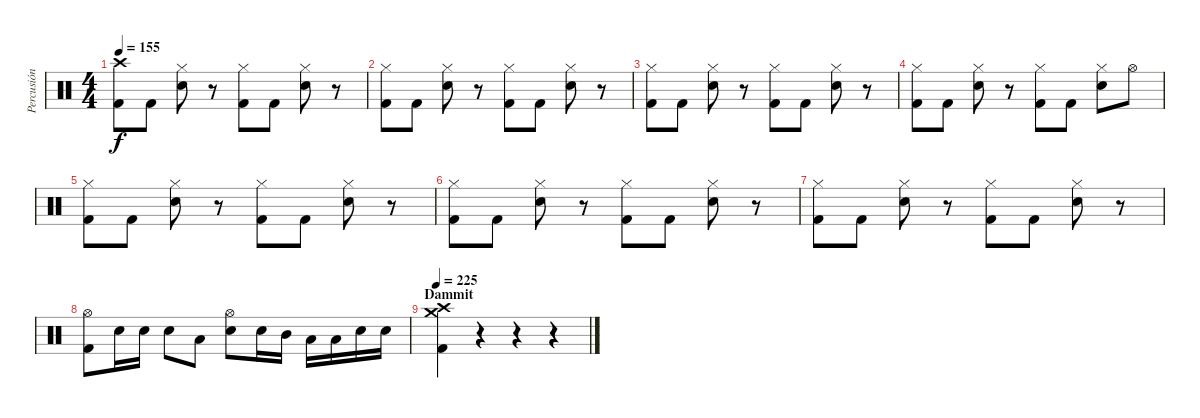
\track ("Percusión" "Percusión") {instrument percussion}
\staff {score}
\articulation defaults
\ts (4 4)
\tempo 155
\clef neutral
\ks c
("Crash high (hit)" "Kick (hit) 2").8{dy f} "Kick (hit) 2".8 ("Hi-Hat (closed)" "Electric Snare (hit)").8 r.8 ("Hi-Hat (closed)" "Kick (hit) 2").8 "Kick (hit) 2".8 ("Hi-Hat (closed)" "Electric Snare (hit)").8 r.8 |
("Hi-Hat (closed)" "Kick (hit) 2").8 "Kick (hit) 2".8 ("Hi-Hat (closed)" "Electric Snare (hit)").8 r.8 ("Hi-Hat (closed)" "Kick (hit) 2").8 "Kick (hit) 2".8 ("Hi-Hat (closed)" "Electric Snare (hit)").8 r.8 |
("Hi-Hat (closed)" "Kick (hit) 2").8 "Kick (hit) 2".8 ("Hi-Hat (closed)" "Electric Snare (hit)").8 r.8 ("Hi-Hat (closed)" "Kick (hit) 2").8 "Kick (hit) 2".8 ("Hi-Hat (closed)" "Electric Snare (hit)").8 r.8 |
("Hi-Hat (closed)" "Kick (hit) 2").8 "Kick (hit) 2".8 ("Hi-Hat (closed)" "Electric Snare (hit)").8 r.8 ("Hi-Hat (closed)" "Kick (hit) 2").8 "Kick (hit) 2".8 ("Hi-Hat (closed)" "Electric Snare (hit)").8 "Hi-Hat (open)".8 |
("Hi-Hat (closed)" "Kick (hit) 2").8 "Kick (hit) 2".8 ("Hi-Hat (closed)" "Electric Snare (hit)").8 r.8 ("Hi-Hat (closed)" "Kick (hit) 2").8 "Kick (hit) 2".8 ("Hi-Hat (closed)" "Electric Snare (hit)").8 r.8 |
("Hi-Hat (closed)" "Kick (hit) 2").8 "Kick (hit) 2".8 ("Hi-Hat (closed)" "Electric Snare (hit)").8 r.8 ("Hi-Hat (closed)" "Kick (hit) 2").8 "Kick (hit) 2".8 ("Hi-Hat (closed)" "Electric Snare (hit)").8 r.8 |
("Hi-Hat (closed)" "Kick (hit) 2").8 "Kick (hit) 2".8 ("Hi-Hat (closed)" "Electric Snare (hit)").8 r.8 ("Hi-Hat (closed)" "Kick (hit) 2").8 "Kick (hit) 2".8 ("Hi-Hat (closed)" "Electric Snare (hit)").8 r.8 |
("Hi-Hat (open)" "Kick (hit) 2").8 "Electric Snare (hit)".16 "Electric Snare (hit)".16 "Electric Snare (hit)".8 "Low Tom (hit)".8 ("Hi-Hat (open)" "Electric Snare (hit)").8 "Electric Snare (hit)".16 "Mid Tom (hit)".16 "Low Tom (hit)".16 "Low Tom (hit)".16 "Electric Snare (hit)".16 "Electric Snare (hit)".16 |
\section ("" "Dammit")
\tempo 225
("Crash high (hit)" "Crash medium (hit)" "Kick (hit) 2").4 r.4 r.4 r.4
